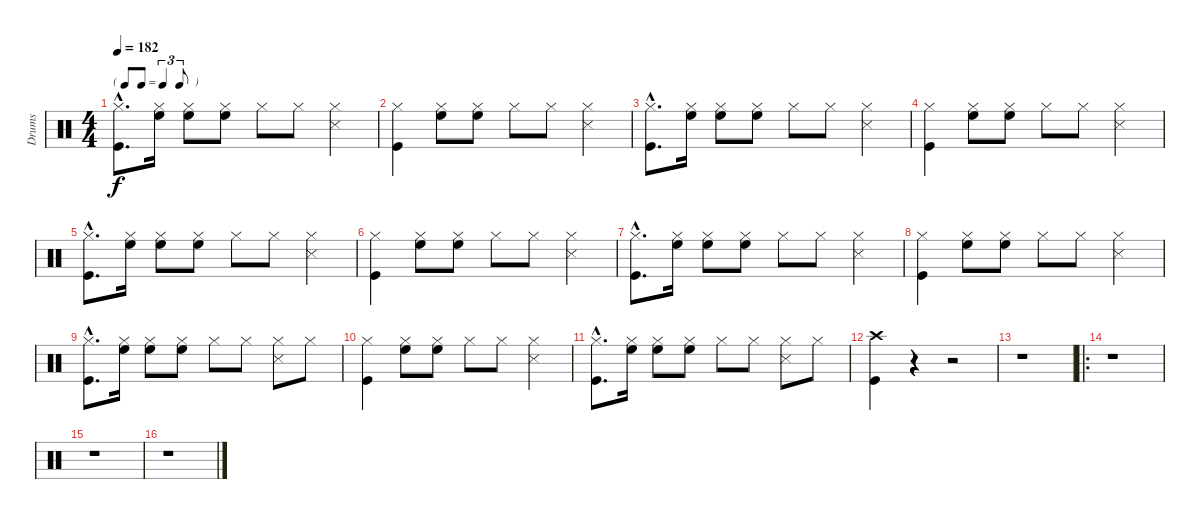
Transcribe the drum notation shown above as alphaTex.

\track ("Drums" "Drums") {instrument percussion}
\staff {score}
\articulation defaults
\ts (4 4)
\tf triplet8th
\tempo 182
\clef neutral
\ks c
("Hi-Hat (closed)"{hac} "Kick (hit)"{hac}).8{d dy f} ("Hi-Hat (closed)" "High Floor Tom (hit)").16 ("Hi-Hat (closed)" "High Floor Tom (hit)").8 ("Hi-Hat (closed)" "High Floor Tom (hit)").8 "Hi-Hat (closed)".8 "Hi-Hat (closed)".8 ("Hi-Hat (closed)" "Snare (side stick) 3").4 |
("Hi-Hat (closed)" "Kick (hit)").4 ("Hi-Hat (closed)" "High Floor Tom (hit)").8 ("Hi-Hat (closed)" "High Floor Tom (hit)").8 "Hi-Hat (closed)".8 "Hi-Hat (closed)".8 ("Hi-Hat (closed)" "Snare (side stick) 3").4 |
("Hi-Hat (closed)"{hac} "Kick (hit)"{hac}).8{d} ("Hi-Hat (closed)" "High Floor Tom (hit)").16 ("Hi-Hat (closed)" "High Floor Tom (hit)").8 ("Hi-Hat (closed)" "High Floor Tom (hit)").8 "Hi-Hat (closed)".8 "Hi-Hat (closed)".8 ("Hi-Hat (closed)" "Snare (side stick) 3").4 |
("Hi-Hat (closed)" "Kick (hit)").4 ("Hi-Hat (closed)" "High Floor Tom (hit)").8 ("Hi-Hat (closed)" "High Floor Tom (hit)").8 "Hi-Hat (closed)".8 "Hi-Hat (closed)".8 ("Hi-Hat (closed)" "Snare (side stick) 3").4 |
("Hi-Hat (closed)"{hac} "Kick (hit)"{hac}).8{d} ("Hi-Hat (closed)" "High Floor Tom (hit)").16 ("Hi-Hat (closed)" "High Floor Tom (hit)").8 ("Hi-Hat (closed)" "High Floor Tom (hit)").8 "Hi-Hat (closed)".8 "Hi-Hat (closed)".8 ("Hi-Hat (closed)" "Snare (side stick) 3").4 |
("Hi-Hat (closed)" "Kick (hit)").4 ("Hi-Hat (closed)" "High Floor Tom (hit)").8 ("Hi-Hat (closed)" "High Floor Tom (hit)").8 "Hi-Hat (closed)".8 "Hi-Hat (closed)".8 ("Hi-Hat (closed)" "Snare (side stick) 3").4 |
("Hi-Hat (closed)"{hac} "Kick (hit)"{hac}).8{d} ("Hi-Hat (closed)" "High Floor Tom (hit)").16 ("Hi-Hat (closed)" "High Floor Tom (hit)").8 ("Hi-Hat (closed)" "High Floor Tom (hit)").8 "Hi-Hat (closed)".8 "Hi-Hat (closed)".8 ("Hi-Hat (closed)" "Snare (side stick) 3").4 |
("Hi-Hat (closed)" "Kick (hit)").4 ("Hi-Hat (closed)" "High Floor Tom (hit)").8 ("Hi-Hat (closed)" "High Floor Tom (hit)").8 "Hi-Hat (closed)".8 "Hi-Hat (closed)".8 ("Hi-Hat (closed)" "Snare (side stick) 3").4 |
("Hi-Hat (closed)"{hac} "Kick (hit)"{hac}).8{d} ("Hi-Hat (closed)" "High Floor Tom (hit)").16 ("Hi-Hat (closed)" "High Floor Tom (hit)").8 ("Hi-Hat (closed)" "High Floor Tom (hit)").8 "Hi-Hat (closed)".8 "Hi-Hat (closed)".8 ("Hi-Hat (closed)" "Snare (side stick) 3").8 "Hi-Hat (closed)".8 |
("Hi-Hat (closed)" "Kick (hit)").4 ("Hi-Hat (closed)" "High Floor Tom (hit)").8 ("Hi-Hat (closed)" "High Floor Tom (hit)").8 "Hi-Hat (closed)".8 "Hi-Hat (closed)".8 ("Hi-Hat (closed)" "Snare (side stick) 3").4 |
("Hi-Hat (closed)"{hac} "Kick (hit)"{hac}).8{d} ("Hi-Hat (closed)" "High Floor Tom (hit)").16 ("Hi-Hat (closed)" "High Floor Tom (hit)").8 ("Hi-Hat (closed)" "High Floor Tom (hit)").8 "Hi-Hat (closed)".8 "Hi-Hat (closed)".8 ("Hi-Hat (closed)" "Snare (side stick) 3").8 "Hi-Hat (closed)".8 |
("Crash high (hit)" "Kick (hit)").4 r.4 r.2 |
r.1 |
\ro
r.1 |
r.1 |
r.1
